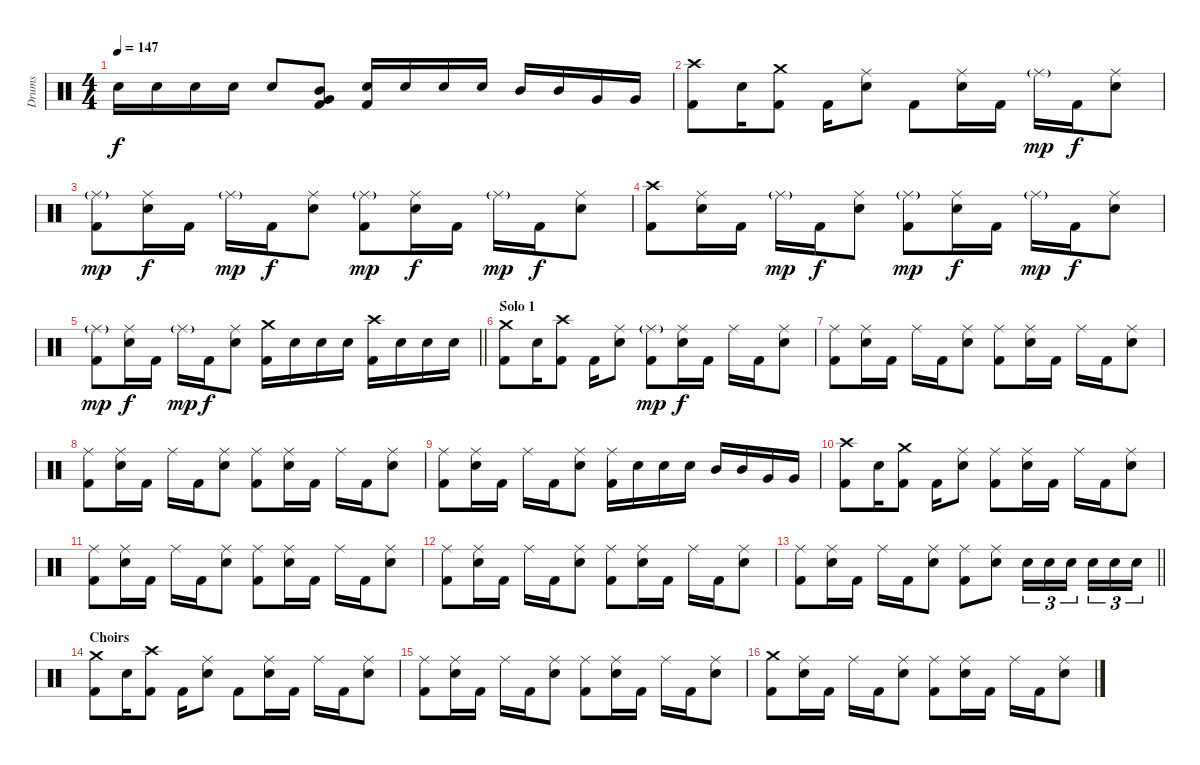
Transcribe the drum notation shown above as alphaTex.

\track ("Drums" "Drums") {instrument percussion}
\staff {score}
\articulation defaults
\ts (4 4)
\tempo 147
\clef neutral
\ks aminor "Electric Snare (hit)".16{dy f} "Electric Snare (hit)".16 "Electric Snare (hit)".16 "Electric Snare (hit)".16 "Electric Snare (hit)".8
("Mid Tom (hit)" "Very Low Tom (hit)" "Kick (hit) 2").8 ("Electric Snare (hit)" "Kick (hit) 2").16 "Electric Snare (hit)".16 "Electric Snare (hit)".16 "Electric Snare (hit)".16 "Mid Tom (hit)".16 "Mid Tom (hit)".16 "Very Low Tom (hit)".16 "Very Low Tom (hit)".16 |
("Crash high (hit)" "Kick (hit) 2").8 "Electric Snare (hit)".16 ("Crash medium (hit)" "Kick (hit) 2").8 "Kick (hit) 2".16 ("Ride (middle)" "Electric Snare (hit)").8 "Kick (hit) 2".8 ("Ride (middle)" "Electric Snare (hit)").16 "Kick (hit) 2".16 "Ride (middle)"{g}.16{dy mp} "Kick (hit) 2".16{dy f} ("Ride (middle)" "Electric Snare (hit)").8 |
("Ride (middle)"{g} "Kick (hit) 2").8{dy mp} ("Ride (middle)" "Electric Snare (hit)").16{dy f} "Kick (hit) 2".16 "Ride (middle)"{g}.16{dy mp} "Kick (hit) 2".16{dy f} ("Ride (middle)" "Electric Snare (hit)").8 ("Ride (middle)"{g} "Kick (hit) 2").8{dy mp} ("Ride (middle)" "Electric Snare (hit)").16{dy f} "Kick (hit) 2".16 "Ride (middle)"{g}.16{dy mp} "Kick (hit) 2".16{dy f} ("Ride (middle)" "Electric Snare (hit)").8 |
("Crash high (hit)" "Kick (hit) 2").8 ("Ride (middle)" "Electric Snare (hit)").16 "Kick (hit) 2".16 "Ride (middle)"{g}.16{dy mp} "Kick (hit) 2".16{dy f} ("Ride (middle)" "Electric Snare (hit)").8 ("Ride (middle)"{g} "Kick (hit) 2").8{dy mp} ("Ride (middle)" "Electric Snare (hit)").16{dy f} "Kick (hit) 2".16 "Ride (middle)"{g}.16{dy mp} "Kick (hit) 2".16{dy f} ("Ride (middle)" "Electric Snare (hit)").8 |
\barLineRight lightlight
("Ride (middle)"{g} "Kick (hit) 2").8{dy mp} ("Ride (middle)" "Electric Snare (hit)").16{dy f} "Kick (hit) 2".16 "Ride (middle)"{g}.16{dy mp} "Kick (hit) 2".16{dy f} ("Ride (middle)" "Electric Snare (hit)").8 ("Crash medium (hit)" "Kick (hit) 2").16 "Electric Snare (hit)".16 "Electric Snare (hit)".16 "Electric Snare (hit)".16 ("Crash high (hit)" "Kick (hit) 2").16 "Electric Snare (hit)".16 "Electric Snare (hit)".16 "Electric Snare (hit)".16 |
\section ("" "Solo 1")
("Crash medium (hit)" "Kick (hit) 2").8 "Electric Snare (hit)".16 ("Crash high (hit)" "Kick (hit) 2").8 "Kick (hit) 2".16 ("Ride (middle)" "Electric Snare (hit)").8 ("Ride (middle)"{g} "Kick (hit) 2").8{dy mp} ("Ride (middle)" "Electric Snare (hit)").16{dy f} "Kick (hit) 2".16 "Ride (middle)".16 "Kick (hit) 2".16 ("Ride (middle)" "Electric Snare (hit)").8 |
("Ride (middle)" "Kick (hit) 2").8 ("Ride (middle)" "Electric Snare (hit)").16 "Kick (hit) 2".16 "Ride (middle)".16 "Kick (hit) 2".16 ("Ride (middle)" "Electric Snare (hit)").8 ("Ride (middle)" "Kick (hit) 2").8 ("Ride (middle)" "Electric Snare (hit)").16 "Kick (hit) 2".16 "Ride (middle)".16 "Kick (hit) 2".16 ("Ride (middle)" "Electric Snare (hit)").8 |
("Ride (middle)" "Kick (hit) 2").8 ("Ride (middle)" "Electric Snare (hit)").16 "Kick (hit) 2".16 "Ride (middle)".16 "Kick (hit) 2".16 ("Ride (middle)" "Electric Snare (hit)").8 ("Ride (middle)" "Kick (hit) 2").8 ("Ride (middle)" "Electric Snare (hit)").16 "Kick (hit) 2".16 "Ride (middle)".16 "Kick (hit) 2".16 ("Ride (middle)" "Electric Snare (hit)").8 |
("Ride (middle)" "Kick (hit) 2").8 ("Ride (middle)" "Electric Snare (hit)").16 "Kick (hit) 2".16 "Ride (middle)".16 "Kick (hit) 2".16 ("Ride (middle)" "Electric Snare (hit)").8 ("Ride (middle)" "Kick (hit) 2").16 "Electric Snare (hit)".16 "Electric Snare (hit)".16 "Electric Snare (hit)".16 "Mid Tom (hit)".16 "Mid Tom (hit)".16 "Very Low Tom (hit)".16 "Very Low Tom (hit)".16 |
("Crash high (hit)" "Kick (hit) 2").8 "Electric Snare (hit)".16 ("Crash medium (hit)" "Kick (hit) 2").8 "Kick (hit) 2".16 ("Ride (middle)" "Electric Snare (hit)").8 ("Ride (middle)" "Kick (hit) 2").8 ("Ride (middle)" "Electric Snare (hit)").16 "Kick (hit) 2".16 "Ride (middle)".16 "Kick (hit) 2".16 ("Ride (middle)" "Electric Snare (hit)").8 |
("Ride (middle)" "Kick (hit) 2").8 ("Ride (middle)" "Electric Snare (hit)").16 "Kick (hit) 2".16 "Ride (middle)".16 "Kick (hit) 2".16 ("Ride (middle)" "Electric Snare (hit)").8 ("Ride (middle)" "Kick (hit) 2").8 ("Ride (middle)" "Electric Snare (hit)").16 "Kick (hit) 2".16 "Ride (middle)".16 "Kick (hit) 2".16 ("Ride (middle)" "Electric Snare (hit)").8 |
("Ride (middle)" "Kick (hit) 2").8 ("Ride (middle)" "Electric Snare (hit)").16 "Kick (hit) 2".16 "Ride (middle)".16 "Kick (hit) 2".16 ("Ride (middle)" "Electric Snare (hit)").8 ("Ride (middle)" "Kick (hit) 2").8 ("Ride (middle)" "Electric Snare (hit)").16 "Kick (hit) 2".16 "Ride (middle)".16 "Kick (hit) 2".16 ("Ride (middle)" "Electric Snare (hit)").8 |
\barLineRight lightlight
("Ride (middle)" "Kick (hit) 2").8 ("Ride (middle)" "Electric Snare (hit)").16 "Kick (hit) 2".16 "Ride (middle)".16 "Kick (hit) 2".16 ("Ride (middle)" "Electric Snare (hit)").8 ("Ride (middle)" "Kick (hit) 2").8 ("Ride (middle)" "Electric Snare (hit)").8 "Electric Snare (hit)".16{tu (3 2)} "Electric Snare (hit)".16{tu (3 2)} "Electric Snare (hit)".16{tu (3 2)} "Electric Snare (hit)".16{tu (3 2)} "Electric Snare (hit)".16{tu (3 2)} "Electric Snare (hit)".16{tu (3 2)} |
\section ("" "Choirs")
("Crash medium (hit)" "Kick (hit) 2").8 "Electric Snare (hit)".16 ("Crash high (hit)" "Kick (hit) 2").8 "Kick (hit) 2".16 ("Ride (middle)" "Electric Snare (hit)").8 "Kick (hit) 2".8 ("Ride (middle)" "Electric Snare (hit)").16 "Kick (hit) 2".16 "Ride (middle)".16 "Kick (hit) 2".16 ("Ride (middle)" "Electric Snare (hit)").8 |
("Ride (middle)" "Kick (hit) 2").8 ("Ride (middle)" "Electric Snare (hit)").16 "Kick (hit) 2".16 "Ride (middle)".16 "Kick (hit) 2".16 ("Ride (middle)" "Electric Snare (hit)").8 ("Ride (middle)" "Kick (hit) 2").8 ("Ride (middle)" "Electric Snare (hit)").16 "Kick (hit) 2".16 "Ride (middle)".16 "Kick (hit) 2".16 ("Ride (middle)" "Electric Snare (hit)").8 |
("Crash medium (hit)" "Kick (hit) 2").8 ("Ride (middle)" "Electric Snare (hit)").16 "Kick (hit) 2".16 "Ride (middle)".16 "Kick (hit) 2".16 ("Ride (middle)" "Electric Snare (hit)").8 ("Ride (middle)" "Kick (hit) 2").8 ("Ride (middle)" "Electric Snare (hit)").16 "Kick (hit) 2".16 "Ride (middle)".16 "Kick (hit) 2".16 ("Ride (middle)" "Electric Snare (hit)").8
